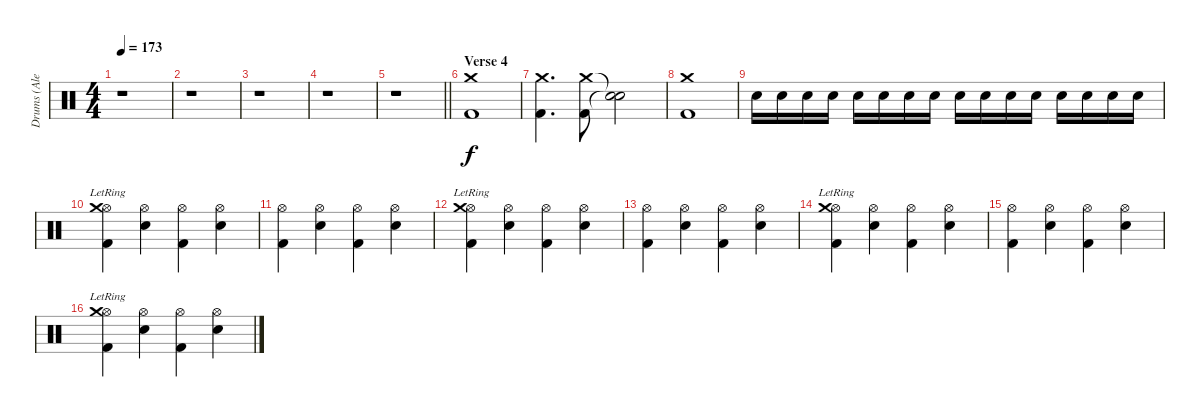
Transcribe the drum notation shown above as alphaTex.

\track ("Drums (Alex Van Halen)" "Drums (Ale") {instrument percussion}
\staff {score}
\articulation defaults
\ts (4 4)
\tempo 173
\clef neutral
\ks c
r.1{dy f} |
r.1 |
r.1 |
r.1 |
\barLineRight lightlight
r.1 |
\section ("" "Verse 4")
("Kick (hit) 2" "Crash medium (hit)").1 |
("Kick (hit) 2" "Crash medium (hit)").4{d} ("Kick (hit) 2" "Crash medium (hit)").8 ("Snare (hit)"{t} "Snare (hit)"{t}).2 |
("Kick (hit) 2" "Crash medium (hit)").1 |
"Snare (hit) 2".16 "Snare (hit) 2".16 "Snare (hit) 2".16 "Snare (hit) 2".16 "Snare (hit) 2".16 "Snare (hit) 2".16 "Snare (hit) 2".16 "Snare (hit) 2".16 "Snare (hit) 2".16 "Snare (hit) 2".16 "Snare (hit) 2".16 "Snare (hit) 2".16 "Snare (hit) 2".16 "Snare (hit) 2".16 "Snare (hit) 2".16 "Snare (hit) 2".16 |
("Kick (hit) 2" "Hi-Hat (open)" "Crash medium (hit)"{lr}).4 ("Snare (hit) 2" "Hi-Hat (open)").4 ("Kick (hit) 2" "Hi-Hat (open)").4 ("Snare (hit) 2" "Hi-Hat (open)").4 |
("Kick (hit) 2" "Hi-Hat (open)").4 ("Snare (hit) 2" "Hi-Hat (open)").4 ("Kick (hit) 2" "Hi-Hat (open)").4 ("Snare (hit) 2" "Hi-Hat (open)").4 |
("Kick (hit) 2" "Hi-Hat (open)" "Crash medium (hit)"{lr}).4 ("Snare (hit) 2" "Hi-Hat (open)").4 ("Kick (hit) 2" "Hi-Hat (open)").4 ("Snare (hit) 2" "Hi-Hat (open)").4 |
("Kick (hit) 2" "Hi-Hat (open)").4 ("Snare (hit) 2" "Hi-Hat (open)").4 ("Kick (hit) 2" "Hi-Hat (open)").4 ("Snare (hit) 2" "Hi-Hat (open)").4 |
("Kick (hit) 2" "Hi-Hat (open)" "Crash medium (hit)"{lr}).4 ("Snare (hit) 2" "Hi-Hat (open)").4 ("Kick (hit) 2" "Hi-Hat (open)").4 ("Snare (hit) 2" "Hi-Hat (open)").4 |
("Kick (hit) 2" "Hi-Hat (open)").4 ("Snare (hit) 2" "Hi-Hat (open)").4 ("Kick (hit) 2" "Hi-Hat (open)").4 ("Snare (hit) 2" "Hi-Hat (open)").4 |
("Kick (hit) 2" "Hi-Hat (open)" "Crash medium (hit)"{lr}).4 ("Snare (hit) 2" "Hi-Hat (open)").4 ("Kick (hit) 2" "Hi-Hat (open)").4 ("Snare (hit) 2" "Hi-Hat (open)").4
